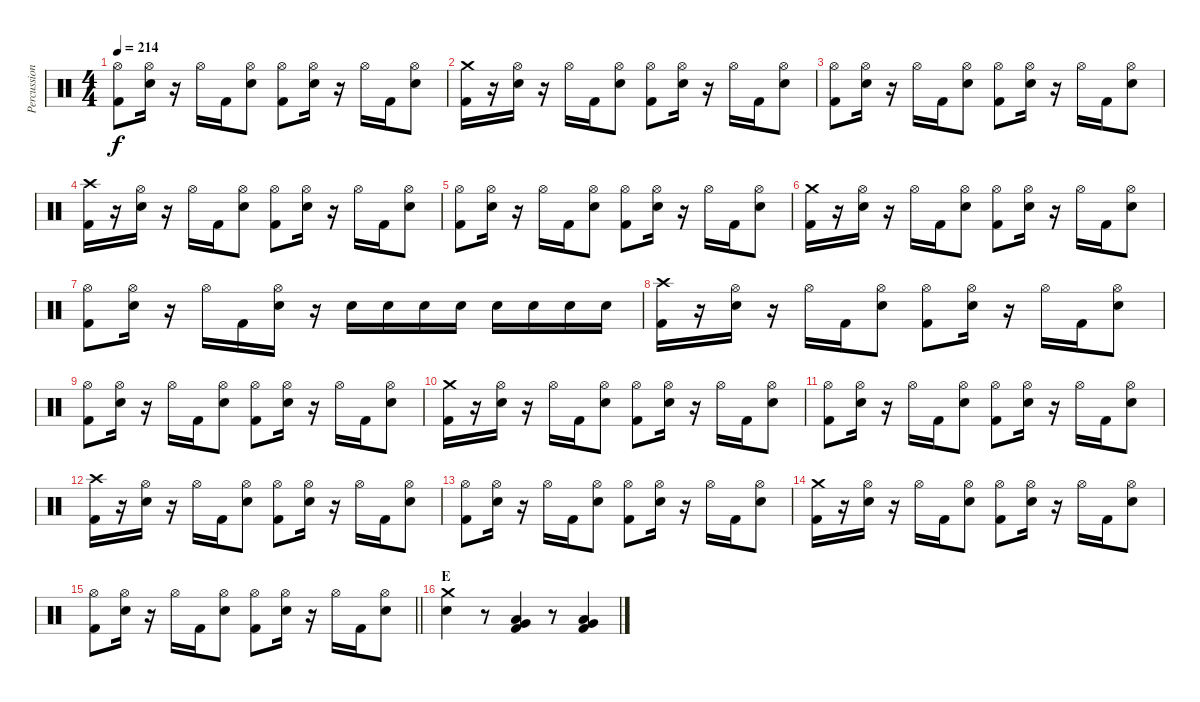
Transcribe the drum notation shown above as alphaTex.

\track ("Percussion" "Percussion") {instrument percussion}
\staff {score}
\articulation defaults
\ts (4 4)
\tempo 214
\clef neutral
\ks c
("Kick (hit) 2" "Hi-Hat (open)").8{dy f} ("Electric Snare (hit)" "Hi-Hat (open)").16 r.16 "Hi-Hat (open)".16 "Kick (hit) 2".16 ("Electric Snare (hit)" "Hi-Hat (open)").8 ("Kick (hit) 2" "Hi-Hat (open)").8 ("Electric Snare (hit)" "Hi-Hat (open)").16 r.16 "Hi-Hat (open)".16 "Kick (hit) 2".16 ("Electric Snare (hit)" "Hi-Hat (open)").8 |
("Kick (hit) 2" "Crash medium (hit)").16 r.16 ("Electric Snare (hit)" "Hi-Hat (open)").16 r.16 "Hi-Hat (open)".16 "Kick (hit) 2".16 ("Electric Snare (hit)" "Hi-Hat (open)").8 ("Kick (hit) 2" "Hi-Hat (open)").8 ("Electric Snare (hit)" "Hi-Hat (open)").16 r.16 "Hi-Hat (open)".16 "Kick (hit) 2".16 ("Electric Snare (hit)" "Hi-Hat (open)").8 |
("Kick (hit) 2" "Hi-Hat (open)").8 ("Electric Snare (hit)" "Hi-Hat (open)").16 r.16 "Hi-Hat (open)".16 "Kick (hit) 2".16 ("Electric Snare (hit)" "Hi-Hat (open)").8 ("Kick (hit) 2" "Hi-Hat (open)").8 ("Electric Snare (hit)" "Hi-Hat (open)").16 r.16 "Hi-Hat (open)".16 "Kick (hit) 2".16 ("Electric Snare (hit)" "Hi-Hat (open)").8 |
("Crash high (hit)" "Kick (hit) 2").16 r.16 ("Electric Snare (hit)" "Hi-Hat (open)").16 r.16 "Hi-Hat (open)".16 "Kick (hit) 2".16 ("Electric Snare (hit)" "Hi-Hat (open)").8 ("Kick (hit) 2" "Hi-Hat (open)").8 ("Electric Snare (hit)" "Hi-Hat (open)").16 r.16 "Hi-Hat (open)".16 "Kick (hit) 2".16 ("Electric Snare (hit)" "Hi-Hat (open)").8 |
("Kick (hit) 2" "Hi-Hat (open)").8 ("Electric Snare (hit)" "Hi-Hat (open)").16 r.16 "Hi-Hat (open)".16 "Kick (hit) 2".16 ("Electric Snare (hit)" "Hi-Hat (open)").8 ("Kick (hit) 2" "Hi-Hat (open)").8 ("Electric Snare (hit)" "Hi-Hat (open)").16 r.16 "Hi-Hat (open)".16 "Kick (hit) 2".16 ("Electric Snare (hit)" "Hi-Hat (open)").8 |
("Kick (hit) 2" "Crash medium (hit)").16 r.16 ("Electric Snare (hit)" "Hi-Hat (open)").16 r.16 "Hi-Hat (open)".16 "Kick (hit) 2".16 ("Electric Snare (hit)" "Hi-Hat (open)").8 ("Kick (hit) 2" "Hi-Hat (open)").8 ("Electric Snare (hit)" "Hi-Hat (open)").16 r.16 "Hi-Hat (open)".16 "Kick (hit) 2".16 ("Electric Snare (hit)" "Hi-Hat (open)").8 |
("Kick (hit) 2" "Hi-Hat (open)").8 ("Electric Snare (hit)" "Hi-Hat (open)").16 r.16 "Hi-Hat (open)".16 "Kick (hit) 2".16 ("Electric Snare (hit)" "Hi-Hat (open)").16 r.16 "Electric Snare (hit)".16 "Electric Snare (hit)".16 "Electric Snare (hit)".16 "Electric Snare (hit)".16 "Electric Snare (hit)".16 "Electric Snare (hit)".16 "Electric Snare (hit)".16 "Electric Snare (hit)".16 |
("Crash high (hit)" "Kick (hit) 2").16 r.16 ("Electric Snare (hit)" "Hi-Hat (open)").16 r.16 "Hi-Hat (open)".16 "Kick (hit) 2".16 ("Electric Snare (hit)" "Hi-Hat (open)").8 ("Kick (hit) 2" "Hi-Hat (open)").8 ("Electric Snare (hit)" "Hi-Hat (open)").16 r.16 "Hi-Hat (open)".16 "Kick (hit) 2".16 ("Electric Snare (hit)" "Hi-Hat (open)").8 |
("Kick (hit) 2" "Hi-Hat (open)").8 ("Electric Snare (hit)" "Hi-Hat (open)").16 r.16 "Hi-Hat (open)".16 "Kick (hit) 2".16 ("Electric Snare (hit)" "Hi-Hat (open)").8 ("Kick (hit) 2" "Hi-Hat (open)").8 ("Electric Snare (hit)" "Hi-Hat (open)").16 r.16 "Hi-Hat (open)".16 "Kick (hit) 2".16 ("Electric Snare (hit)" "Hi-Hat (open)").8 |
("Kick (hit) 2" "Crash medium (hit)").16 r.16 ("Electric Snare (hit)" "Hi-Hat (open)").16 r.16 "Hi-Hat (open)".16 "Kick (hit) 2".16 ("Electric Snare (hit)" "Hi-Hat (open)").8 ("Kick (hit) 2" "Hi-Hat (open)").8 ("Electric Snare (hit)" "Hi-Hat (open)").16 r.16 "Hi-Hat (open)".16 "Kick (hit) 2".16 ("Electric Snare (hit)" "Hi-Hat (open)").8 |
("Kick (hit) 2" "Hi-Hat (open)").8 ("Electric Snare (hit)" "Hi-Hat (open)").16 r.16 "Hi-Hat (open)".16 "Kick (hit) 2".16 ("Electric Snare (hit)" "Hi-Hat (open)").8 ("Kick (hit) 2" "Hi-Hat (open)").8 ("Electric Snare (hit)" "Hi-Hat (open)").16 r.16 "Hi-Hat (open)".16 "Kick (hit) 2".16 ("Electric Snare (hit)" "Hi-Hat (open)").8 |
("Crash high (hit)" "Kick (hit) 2").16 r.16 ("Electric Snare (hit)" "Hi-Hat (open)").16 r.16 "Hi-Hat (open)".16 "Kick (hit) 2".16 ("Electric Snare (hit)" "Hi-Hat (open)").8 ("Kick (hit) 2" "Hi-Hat (open)").8 ("Electric Snare (hit)" "Hi-Hat (open)").16 r.16 "Hi-Hat (open)".16 "Kick (hit) 2".16 ("Electric Snare (hit)" "Hi-Hat (open)").8 |
("Kick (hit) 2" "Hi-Hat (open)").8 ("Electric Snare (hit)" "Hi-Hat (open)").16 r.16 "Hi-Hat (open)".16 "Kick (hit) 2".16 ("Electric Snare (hit)" "Hi-Hat (open)").8 ("Kick (hit) 2" "Hi-Hat (open)").8 ("Electric Snare (hit)" "Hi-Hat (open)").16 r.16 "Hi-Hat (open)".16 "Kick (hit) 2".16 ("Electric Snare (hit)" "Hi-Hat (open)").8 |
("Kick (hit) 2" "Crash medium (hit)").16 r.16 ("Electric Snare (hit)" "Hi-Hat (open)").16 r.16 "Hi-Hat (open)".16 "Kick (hit) 2".16 ("Electric Snare (hit)" "Hi-Hat (open)").8 ("Kick (hit) 2" "Hi-Hat (open)").8 ("Electric Snare (hit)" "Hi-Hat (open)").16 r.16 "Hi-Hat (open)".16 "Kick (hit) 2".16 ("Electric Snare (hit)" "Hi-Hat (open)").8 |
\barLineRight lightlight
("Kick (hit) 2" "Hi-Hat (open)").8 ("Electric Snare (hit)" "Hi-Hat (open)").16 r.16 "Hi-Hat (open)".16 "Kick (hit) 2".16 ("Electric Snare (hit)" "Hi-Hat (open)").8 ("Kick (hit) 2" "Hi-Hat (open)").8 ("Electric Snare (hit)" "Hi-Hat (open)").16 r.16 "Hi-Hat (open)".16 "Kick (hit) 2".16 ("Electric Snare (hit)" "Hi-Hat (open)").8 |
\section ("" "E")
("Electric Snare (hit)" "Crash medium (hit)").4 r.8 ("Low Tom (hit)" "Very Low Tom (hit)" "Kick (hit) 2").4 r.8 ("Low Tom (hit)" "Very Low Tom (hit)" "Kick (hit) 2").4
